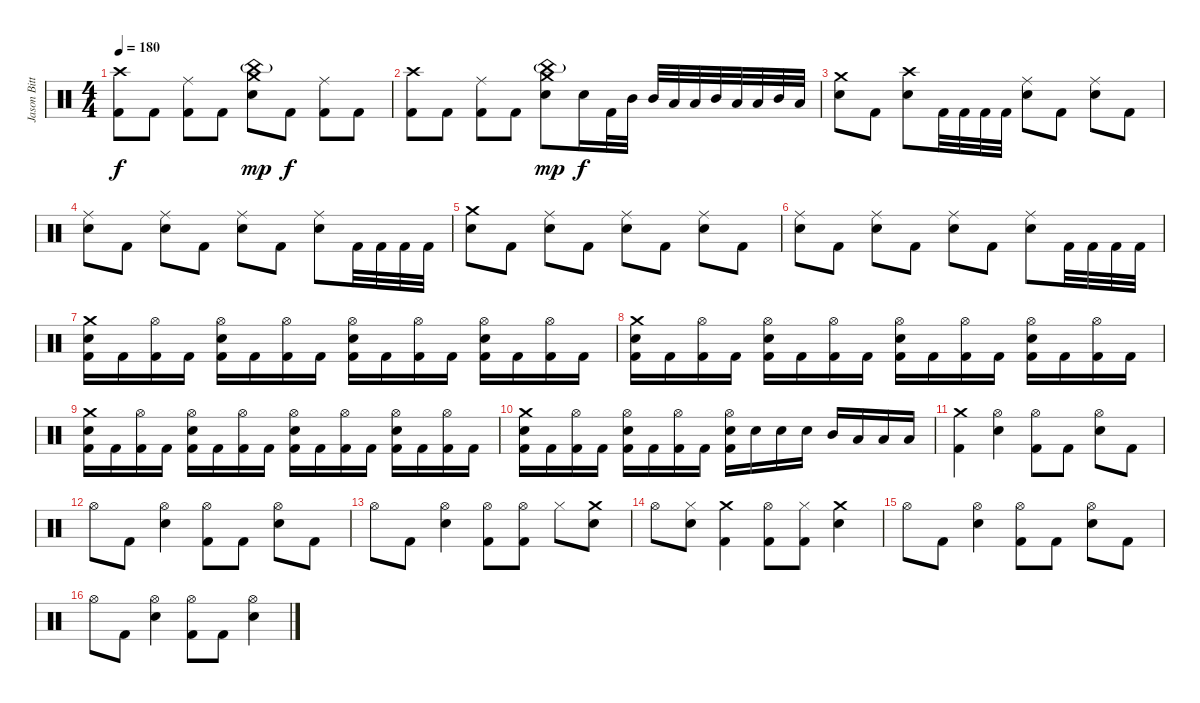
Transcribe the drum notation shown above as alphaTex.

\track ("Jason Bittner" "Jason Bitt") {instrument percussion}
\staff {score}
\articulation defaults
\ts (4 4)
\tempo 180
\clef neutral
\ks c
("Crash high (hit)" "Kick (hit) 2").8{dy f} "Kick (hit) 2".8 ("Ride (middle)" "Kick (hit) 2").8 "Kick (hit) 2".8 ("China (hit)"{g} "Crash medium (hit)" "Electric Snare (hit)").8{dy mp} "Kick (hit) 2".8{dy f} ("Ride (middle)" "Kick (hit) 2").8 "Kick (hit) 2".8 |
("Crash high (hit)" "Kick (hit) 2").8 "Kick (hit) 2".8 ("Ride (middle)" "Kick (hit) 2").8 "Kick (hit) 2".8 ("China (hit)"{g} "Crash medium (hit)" "Electric Snare (hit)").8{dy mp} "Electric Snare (hit)".16{dy f} "Kick (hit) 2".32 "Mid Tom (hit)".32 "Mid Tom (hit)".32 "Low Tom (hit)".32 "Low Tom (hit)".32 "Mid Tom (hit)".32 "Low Tom (hit)".32 "Low Tom (hit)".32 "Mid Tom (hit)".32 "Low Tom (hit)".32 |
("Crash medium (hit)" "Electric Snare (hit)").8 "Kick (hit) 2".8 ("Crash high (hit)" "Electric Snare (hit)").8 "Kick (hit) 2".32 "Kick (hit) 2".32 "Kick (hit) 2".32 "Kick (hit) 2".32 ("Ride (middle)" "Electric Snare (hit)").8 "Kick (hit) 2".8 ("Ride (middle)" "Electric Snare (hit)").8 "Kick (hit) 2".8 |
("Ride (middle)" "Electric Snare (hit)").8 "Kick (hit) 2".8 ("Ride (middle)" "Electric Snare (hit)").8 "Kick (hit) 2".8 ("Ride (middle)" "Electric Snare (hit)").8 "Kick (hit) 2".8 ("Ride (middle)" "Electric Snare (hit)").8 "Kick (hit) 2".32 "Kick (hit) 2".32 "Kick (hit) 2".32 "Kick (hit) 2".32 |
("Crash medium (hit)" "Electric Snare (hit)").8 "Kick (hit) 2".8 ("Ride (middle)" "Electric Snare (hit)").8 "Kick (hit) 2".8 ("Ride (middle)" "Electric Snare (hit)").8 "Kick (hit) 2".8 ("Ride (middle)" "Electric Snare (hit)").8 "Kick (hit) 2".8 |
("Ride (middle)" "Electric Snare (hit)").8 "Kick (hit) 2".8 ("Ride (middle)" "Electric Snare (hit)").8 "Kick (hit) 2".8 ("Ride (middle)" "Electric Snare (hit)").8 "Kick (hit) 2".8 ("Ride (middle)" "Electric Snare (hit)").8 "Kick (hit) 2".32 "Kick (hit) 2".32 "Kick (hit) 2".32 "Kick (hit) 2".32 |
("Crash medium (hit)" "Kick (hit) 2" "Electric Snare (hit)").16 "Kick (hit) 2".16 ("Hi-Hat (open)" "Kick (hit) 2").16 "Kick (hit) 2".16 ("Hi-Hat (open)" "Kick (hit) 2" "Electric Snare (hit)").16 "Kick (hit) 2".16 ("Hi-Hat (open)" "Kick (hit) 2").16 "Kick (hit) 2".16 ("Hi-Hat (open)" "Kick (hit) 2" "Electric Snare (hit)").16 "Kick (hit) 2".16 ("Hi-Hat (open)" "Kick (hit) 2").16 "Kick (hit) 2".16 ("Hi-Hat (open)" "Kick (hit) 2" "Electric Snare (hit)").16 "Kick (hit) 2".16 ("Hi-Hat (open)" "Kick (hit) 2").16 "Kick (hit) 2".16 |
("Crash medium (hit)" "Kick (hit) 2" "Electric Snare (hit)").16 "Kick (hit) 2".16 ("Hi-Hat (open)" "Kick (hit) 2").16 "Kick (hit) 2".16 ("Hi-Hat (open)" "Kick (hit) 2" "Electric Snare (hit)").16 "Kick (hit) 2".16 ("Hi-Hat (open)" "Kick (hit) 2").16 "Kick (hit) 2".16 ("Hi-Hat (open)" "Kick (hit) 2" "Electric Snare (hit)").16 "Kick (hit) 2".16 ("Hi-Hat (open)" "Kick (hit) 2").16 "Kick (hit) 2".16 ("Hi-Hat (open)" "Kick (hit) 2" "Electric Snare (hit)").16 "Kick (hit) 2".16 ("Hi-Hat (open)" "Kick (hit) 2").16 "Kick (hit) 2".16 |
("Crash medium (hit)" "Kick (hit) 2" "Electric Snare (hit)").16 "Kick (hit) 2".16 ("Hi-Hat (open)" "Kick (hit) 2").16 "Kick (hit) 2".16 ("Hi-Hat (open)" "Kick (hit) 2" "Electric Snare (hit)").16 "Kick (hit) 2".16 ("Hi-Hat (open)" "Kick (hit) 2").16 "Kick (hit) 2".16 ("Hi-Hat (open)" "Kick (hit) 2" "Electric Snare (hit)").16 "Kick (hit) 2".16 ("Hi-Hat (open)" "Kick (hit) 2").16 "Kick (hit) 2".16 ("Hi-Hat (open)" "Kick (hit) 2" "Electric Snare (hit)").16 "Kick (hit) 2".16 ("Hi-Hat (open)" "Kick (hit) 2").16 "Kick (hit) 2".16 |
("Crash medium (hit)" "Kick (hit) 2" "Electric Snare (hit)").16 "Kick (hit) 2".16 ("Hi-Hat (open)" "Kick (hit) 2").16 "Kick (hit) 2".16 ("Hi-Hat (open)" "Kick (hit) 2" "Electric Snare (hit)").16 "Kick (hit) 2".16 ("Hi-Hat (open)" "Kick (hit) 2").16 "Kick (hit) 2".16 ("Hi-Hat (open)" "Kick (hit) 2" "Electric Snare (hit)").16 "Electric Snare (hit)".16 "Electric Snare (hit)".16 "Electric Snare (hit)".16 "Mid Tom (hit)".16 "Low Tom (hit)".16 "Low Tom (hit)".16 "Low Floor Tom (hit)".16 |
("Crash medium (hit)" "Kick (hit) 2").4 ("Hi-Hat (open)" "Electric Snare (hit)").4 ("Hi-Hat (open)" "Kick (hit) 2").8 "Kick (hit) 2".8 ("Hi-Hat (open)" "Electric Snare (hit)").8 "Kick (hit) 2".8 |
"Hi-Hat (open)".8 "Kick (hit) 2".8 ("Hi-Hat (open)" "Electric Snare (hit)").4 ("Hi-Hat (open)" "Kick (hit) 2").8 "Kick (hit) 2".8 ("Hi-Hat (open)" "Electric Snare (hit)").8 "Kick (hit) 2".8 |
"Hi-Hat (open)".8 "Kick (hit) 2".8 ("Hi-Hat (open)" "Electric Snare (hit)").4 ("Hi-Hat (open)" "Kick (hit) 2").8 ("Hi-Hat (open)" "Kick (hit) 2").8 "Hi-Hat (closed)".8 ("Crash medium (hit)" "Electric Snare (hit)").8 |
"Hi-Hat (open)".8 ("Hi-Hat (closed)" "Electric Snare (hit)").8 ("Crash medium (hit)" "Kick (hit) 2").4 ("Hi-Hat (open)" "Kick (hit) 2").8 ("Hi-Hat (closed)" "Kick (hit) 2").8 ("Crash medium (hit)" "Electric Snare (hit)").4 |
"Hi-Hat (open)".8 "Kick (hit) 2".8 ("Hi-Hat (open)" "Electric Snare (hit)").4 ("Hi-Hat (open)" "Kick (hit) 2").8 "Kick (hit) 2".8 ("Hi-Hat (open)" "Electric Snare (hit)").8 "Kick (hit) 2".8 |
"Hi-Hat (open)".8 "Kick (hit) 2".8 ("Hi-Hat (open)" "Electric Snare (hit)").4 ("Hi-Hat (open)" "Kick (hit) 2").8 "Kick (hit) 2".8 ("Hi-Hat (open)" "Electric Snare (hit)").4
